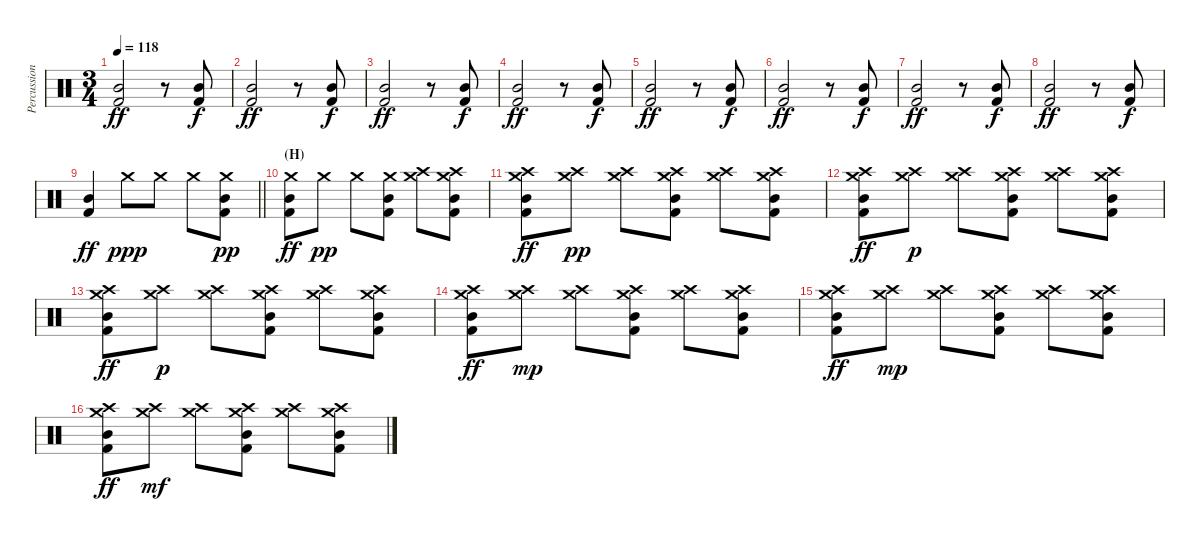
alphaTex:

\track ("Percussion" "Percussion") {instrument percussion}
\staff {score}
\articulation defaults
\ts (3 4)
\tempo 118
\clef neutral
\ks c
("Mid Tom (hit)" "Kick (hit) 2").2{dy ff} r.8 ("Mid Tom (hit)" "Kick (hit) 2").8{dy f} |
("Mid Tom (hit)" "Kick (hit) 2").2{dy ff} r.8 ("Mid Tom (hit)" "Kick (hit) 2").8{dy f} |
("Mid Tom (hit)" "Kick (hit) 2").2{dy ff} r.8 ("Mid Tom (hit)" "Kick (hit) 2").8{dy f} |
("Mid Tom (hit)" "Kick (hit) 2").2{dy ff volume 6} r.8 ("Mid Tom (hit)" "Kick (hit) 2").8{dy f} |
("Mid Tom (hit)" "Kick (hit) 2").2{dy ff} r.8 ("Mid Tom (hit)" "Kick (hit) 2").8{dy f} |
("Mid Tom (hit)" "Kick (hit) 2").2{dy ff} r.8 ("Mid Tom (hit)" "Kick (hit) 2").8{dy f} |
("Mid Tom (hit)" "Kick (hit) 2").2{dy ff} r.8 ("Mid Tom (hit)" "Kick (hit) 2").8{dy f} |
("Mid Tom (hit)" "Kick (hit) 2").2{dy ff} r.8 ("Mid Tom (hit)" "Kick (hit) 2").8{dy f} |
\barLineRight lightlight
("Mid Tom (hit)" "Kick (hit) 2").4{dy ff} "Crash medium (hit)".8{dy ppp} "Crash medium (hit)".8 "Crash medium (hit)".8 ("Crash medium (hit)" "Mid Tom (hit)" "Kick (hit) 2").8{dy pp} |
\section ("" "(H)")
("Crash medium (hit)" "Mid Tom (hit)" "Kick (hit) 2").8{dy ff} "Crash medium (hit)".8{dy pp} "Crash medium (hit)".8 ("Crash medium (hit)" "Mid Tom (hit)" "Kick (hit) 2").8 ("Crash medium (hit)" "Crash high (hit)").8 ("Crash medium (hit)" "Crash high (hit)" "Mid Tom (hit)" "Kick (hit) 2").8 |
("Crash medium (hit)" "Crash high (hit)" "Mid Tom (hit)" "Kick (hit) 2").8{dy ff} ("Crash medium (hit)" "Crash high (hit)").8{dy pp} ("Crash medium (hit)" "Crash high (hit)").8 ("Crash medium (hit)" "Crash high (hit)" "Mid Tom (hit)" "Kick (hit) 2").8 ("Crash medium (hit)" "Crash high (hit)").8 ("Crash medium (hit)" "Crash high (hit)" "Mid Tom (hit)" "Kick (hit) 2").8 |
("Crash medium (hit)" "Crash high (hit)" "Mid Tom (hit)" "Kick (hit) 2").8{dy ff} ("Crash medium (hit)" "Crash high (hit)").8{dy p} ("Crash medium (hit)" "Crash high (hit)").8 ("Crash medium (hit)" "Crash high (hit)" "Mid Tom (hit)" "Kick (hit) 2").8 ("Crash medium (hit)" "Crash high (hit)").8 ("Crash medium (hit)" "Crash high (hit)" "Mid Tom (hit)" "Kick (hit) 2").8 |
("Crash medium (hit)" "Crash high (hit)" "Mid Tom (hit)" "Kick (hit) 2").8{dy ff} ("Crash medium (hit)" "Crash high (hit)").8{dy p} ("Crash medium (hit)" "Crash high (hit)").8 ("Crash medium (hit)" "Crash high (hit)" "Mid Tom (hit)" "Kick (hit) 2").8 ("Crash medium (hit)" "Crash high (hit)").8 ("Crash medium (hit)" "Crash high (hit)" "Mid Tom (hit)" "Kick (hit) 2").8 |
("Crash medium (hit)" "Crash high (hit)" "Mid Tom (hit)" "Kick (hit) 2").8{dy ff} ("Crash medium (hit)" "Crash high (hit)").8{dy mp} ("Crash medium (hit)" "Crash high (hit)").8 ("Crash medium (hit)" "Crash high (hit)" "Mid Tom (hit)" "Kick (hit) 2").8 ("Crash medium (hit)" "Crash high (hit)").8 ("Crash medium (hit)" "Crash high (hit)" "Mid Tom (hit)" "Kick (hit) 2").8 |
("Crash medium (hit)" "Crash high (hit)" "Mid Tom (hit)" "Kick (hit) 2").8{dy ff volume 8} ("Crash medium (hit)" "Crash high (hit)").8{dy mp} ("Crash medium (hit)" "Crash high (hit)").8 ("Crash medium (hit)" "Crash high (hit)" "Mid Tom (hit)" "Kick (hit) 2").8 ("Crash medium (hit)" "Crash high (hit)").8 ("Crash medium (hit)" "Crash high (hit)" "Mid Tom (hit)" "Kick (hit) 2").8 |
("Crash medium (hit)" "Crash high (hit)" "Mid Tom (hit)" "Kick (hit) 2").8{dy ff} ("Crash medium (hit)" "Crash high (hit)").8{dy mf} ("Crash medium (hit)" "Crash high (hit)").8 ("Crash medium (hit)" "Crash high (hit)" "Mid Tom (hit)" "Kick (hit) 2").8 ("Crash medium (hit)" "Crash high (hit)").8 ("Crash medium (hit)" "Crash high (hit)" "Mid Tom (hit)" "Kick (hit) 2").8
